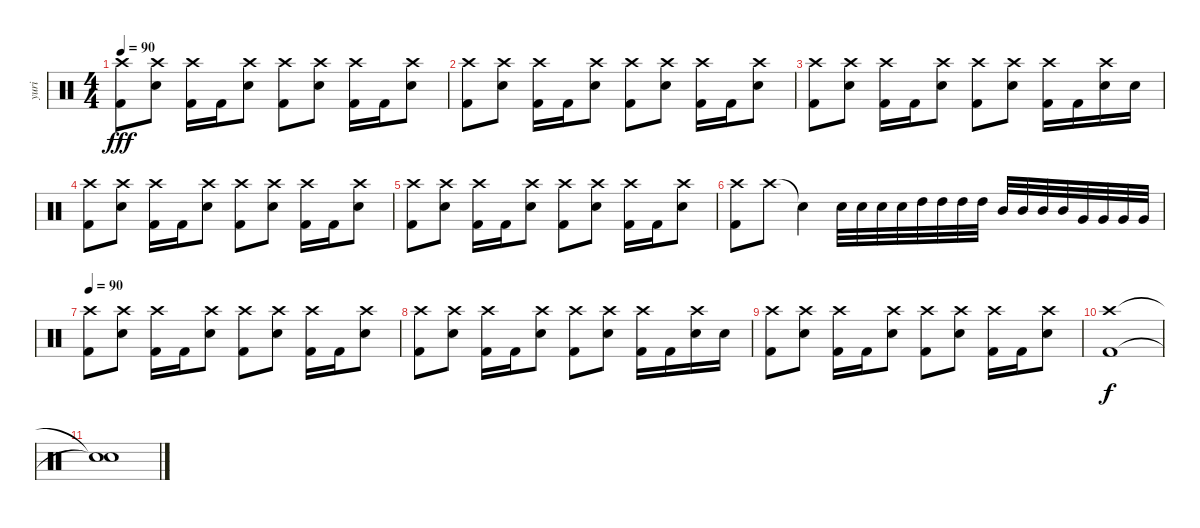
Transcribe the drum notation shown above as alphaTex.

\track ("yuri" "yuri") {instrument percussion}
\staff {score}
\articulation defaults
\ts (4 4)
\tempo 90
\clef neutral
\ks c
("Crash high (hit)" "Kick (hit) 2").8{dy fff} ("Crash high (hit)" "Snare (hit) 2").8 ("Crash high (hit)" "Kick (hit) 2").16 "Kick (hit) 2".16 ("Crash high (hit)" "Snare (hit) 2").8 ("Crash high (hit)" "Kick (hit) 2").8 ("Crash high (hit)" "Snare (hit) 2").8 ("Crash high (hit)" "Kick (hit) 2").16 "Kick (hit) 2".16 ("Crash high (hit)" "Snare (hit) 2").8 |
("Crash high (hit)" "Kick (hit) 2").8 ("Crash high (hit)" "Snare (hit) 2").8 ("Crash high (hit)" "Kick (hit) 2").16 "Kick (hit) 2".16 ("Crash high (hit)" "Snare (hit) 2").8 ("Crash high (hit)" "Kick (hit) 2").8 ("Crash high (hit)" "Snare (hit) 2").8 ("Crash high (hit)" "Kick (hit) 2").16 "Kick (hit) 2".16 ("Crash high (hit)" "Snare (hit) 2").8 |
("Crash high (hit)" "Kick (hit) 2").8 ("Crash high (hit)" "Snare (hit) 2").8 ("Crash high (hit)" "Kick (hit) 2").16 "Kick (hit) 2".16 ("Crash high (hit)" "Snare (hit) 2").8 ("Crash high (hit)" "Kick (hit) 2").8 ("Crash high (hit)" "Snare (hit) 2").8 ("Crash high (hit)" "Kick (hit) 2").16 "Kick (hit) 2".16 ("Crash high (hit)" "Snare (hit) 2").16 "Snare (hit) 2".16 |
("Crash high (hit)" "Kick (hit) 2").8 ("Crash high (hit)" "Snare (hit) 2").8 ("Crash high (hit)" "Kick (hit) 2").16 "Kick (hit) 2".16 ("Crash high (hit)" "Snare (hit) 2").8 ("Crash high (hit)" "Kick (hit) 2").8 ("Crash high (hit)" "Snare (hit) 2").8 ("Crash high (hit)" "Kick (hit) 2").16 "Kick (hit) 2".16 ("Crash high (hit)" "Snare (hit) 2").8 |
("Crash high (hit)" "Kick (hit) 2").8 ("Crash high (hit)" "Snare (hit) 2").8 ("Crash high (hit)" "Kick (hit) 2").16 "Kick (hit) 2".16 ("Crash high (hit)" "Snare (hit) 2").8 ("Crash high (hit)" "Kick (hit) 2").8 ("Crash high (hit)" "Snare (hit) 2").8 ("Crash high (hit)" "Kick (hit) 2").16 "Kick (hit) 2".16 ("Crash high (hit)" "Snare (hit) 2").8 |
("Crash high (hit)" "Kick (hit) 2").8 "Crash high (hit)".8 "Snare (hit)"{t}.4 "Snare (hit) 2".32 "Snare (hit) 2".32 "Snare (hit) 2".32 "Snare (hit) 2".32 "High Tom (hit)".32 "High Tom (hit)".32 "High Tom (hit)".32 "High Tom (hit)".32 "Mid Tom (hit)".32 "Mid Tom (hit)".32 "Mid Tom (hit)".32 "Mid Tom (hit)".32 "Very Low Tom (hit)".32 "Very Low Tom (hit)".32 "Very Low Tom (hit)".32 "Very Low Tom (hit)".32 |
\tempo 90
("Crash high (hit)" "Kick (hit) 2").8 ("Crash high (hit)" "Snare (hit) 2").8 ("Crash high (hit)" "Kick (hit) 2").16 "Kick (hit) 2".16 ("Crash high (hit)" "Snare (hit) 2").8 ("Crash high (hit)" "Kick (hit) 2").8 ("Crash high (hit)" "Snare (hit) 2").8 ("Crash high (hit)" "Kick (hit) 2").16 "Kick (hit) 2".16 ("Crash high (hit)" "Snare (hit) 2").8 |
("Crash high (hit)" "Kick (hit) 2").8 ("Crash high (hit)" "Snare (hit) 2").8 ("Crash high (hit)" "Kick (hit) 2").16 "Kick (hit) 2".16 ("Crash high (hit)" "Snare (hit) 2").8 ("Crash high (hit)" "Kick (hit) 2").8 ("Crash high (hit)" "Snare (hit) 2").8 ("Crash high (hit)" "Kick (hit) 2").16 "Kick (hit) 2".16 ("Crash high (hit)" "Snare (hit) 2").16 "Snare (hit) 2".16 |
("Crash high (hit)" "Kick (hit) 2").8 ("Crash high (hit)" "Snare (hit) 2").8 ("Crash high (hit)" "Kick (hit) 2").16 "Kick (hit) 2".16 ("Crash high (hit)" "Snare (hit) 2").8 ("Crash high (hit)" "Kick (hit) 2").8 ("Crash high (hit)" "Snare (hit) 2").8 ("Crash high (hit)" "Kick (hit) 2").16 "Kick (hit) 2".16 ("Crash high (hit)" "Snare (hit) 2").8 |
("Crash high (hit)" "Kick (hit) 2").1{dy f} |
("Snare (hit)"{t} "Snare (hit)"{t}).1
